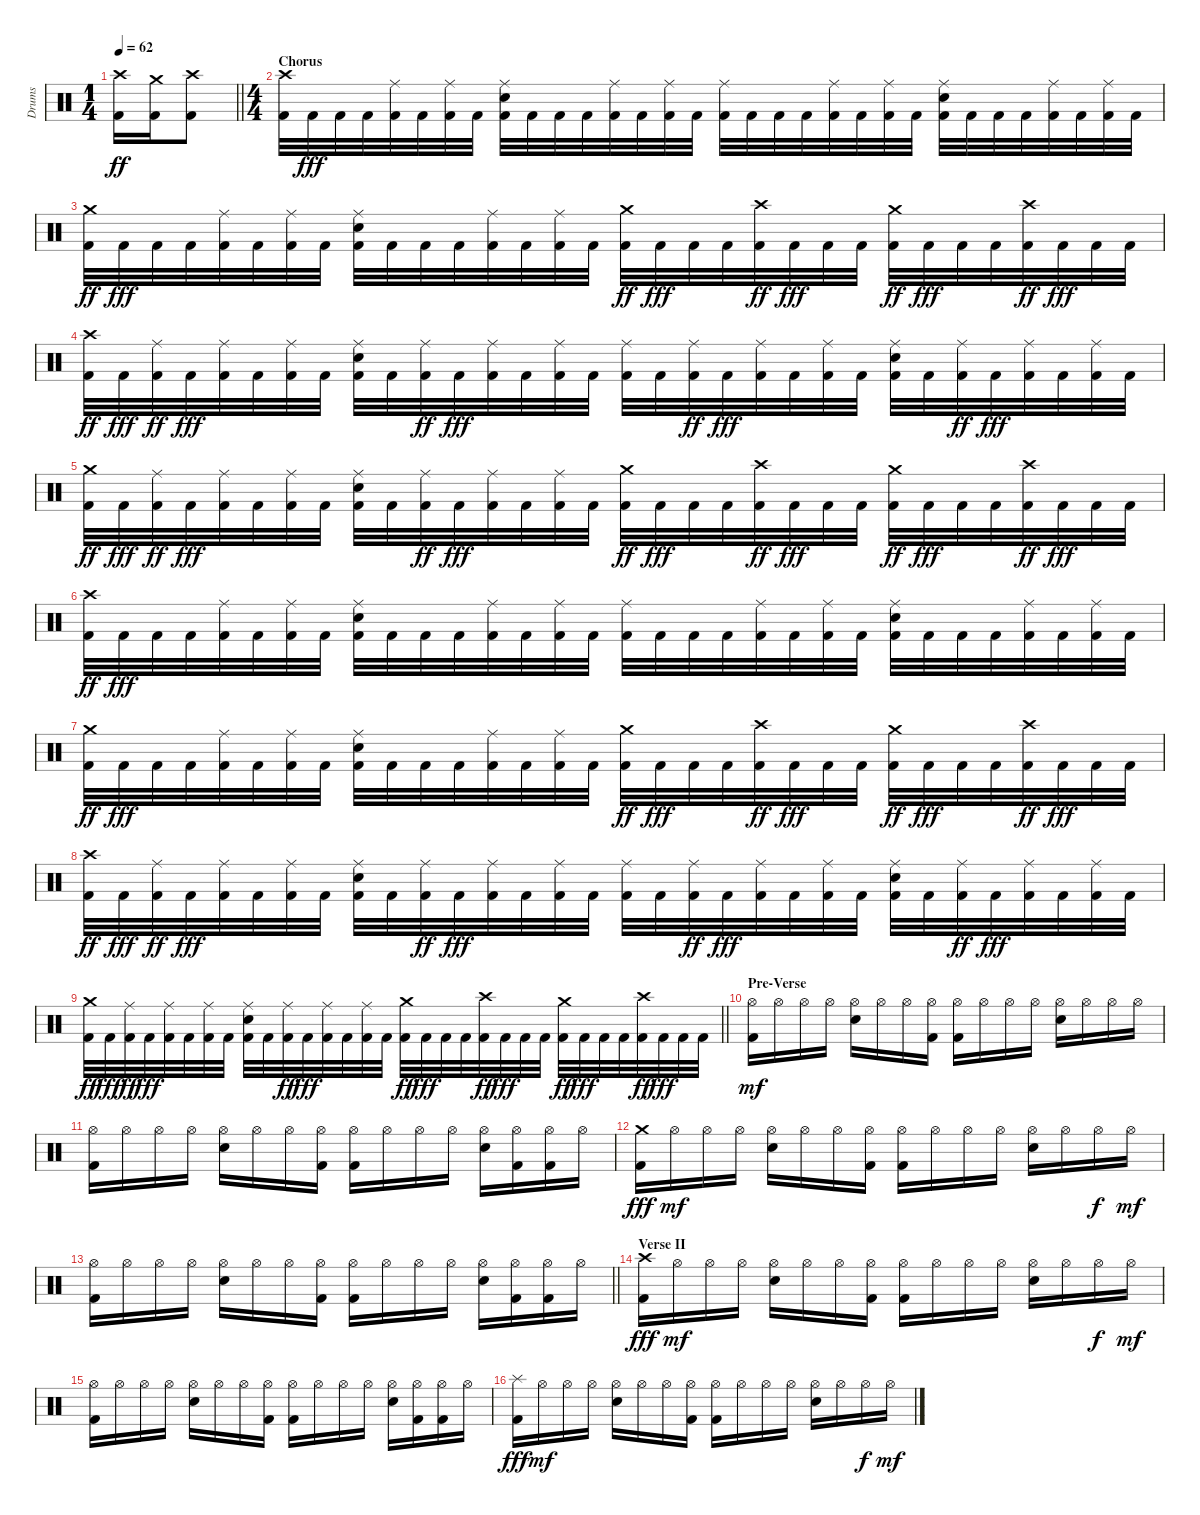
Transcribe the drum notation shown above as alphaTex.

\track ("Drums" "Drums") {instrument percussion}
\staff {score}
\articulation defaults
\ts (1 4)
\tempo 62
\clef neutral
\barLineRight lightlight
\ks c
("Kick (hit) 2" "Crash high (hit)").16{dy ff} ("Kick (hit) 2" "Crash medium (hit)").16 ("Kick (hit) 2" "Crash high (hit)").8 |
\ts (4 4)
\section ("" "Chorus")
("Kick (hit) 2" "Crash high (hit)").32 "Kick (hit) 2".32{dy fff} "Kick (hit) 2".32 "Kick (hit) 2".32 ("Kick (hit) 2" "Ride (middle)").32 "Kick (hit) 2".32 ("Kick (hit) 2" "Ride (middle)").32 "Kick (hit) 2".32 ("Kick (hit) 2" "Electric Snare (hit)" "Ride (middle)").32 "Kick (hit) 2".32 "Kick (hit) 2".32 "Kick (hit) 2".32 ("Kick (hit) 2" "Ride (middle)").32 "Kick (hit) 2".32 ("Kick (hit) 2" "Ride (middle)").32 "Kick (hit) 2".32 ("Kick (hit) 2" "Ride (middle)").32 "Kick (hit) 2".32 "Kick (hit) 2".32 "Kick (hit) 2".32 ("Kick (hit) 2" "Ride (middle)").32 "Kick (hit) 2".32 ("Kick (hit) 2" "Ride (middle)").32 "Kick (hit) 2".32 ("Kick (hit) 2" "Electric Snare (hit)" "Ride (middle)").32 "Kick (hit) 2".32 "Kick (hit) 2".32 "Kick (hit) 2".32 ("Kick (hit) 2" "Ride (middle)").32 "Kick (hit) 2".32 ("Kick (hit) 2" "Ride (middle)").32 "Kick (hit) 2".32 |
("Kick (hit) 2" "Crash medium (hit)").32{dy ff} "Kick (hit) 2".32{dy fff} "Kick (hit) 2".32 "Kick (hit) 2".32 ("Kick (hit) 2" "Ride (middle)").32 "Kick (hit) 2".32 ("Kick (hit) 2" "Ride (middle)").32 "Kick (hit) 2".32 ("Kick (hit) 2" "Electric Snare (hit)" "Ride (middle)").32 "Kick (hit) 2".32 "Kick (hit) 2".32 "Kick (hit) 2".32 ("Kick (hit) 2" "Ride (middle)").32 "Kick (hit) 2".32 ("Kick (hit) 2" "Ride (middle)").32 "Kick (hit) 2".32 ("Kick (hit) 2" "Crash medium (hit)").32{dy ff} "Kick (hit) 2".32{dy fff} "Kick (hit) 2".32 "Kick (hit) 2".32 ("Kick (hit) 2" "Crash high (hit)").32{dy ff} "Kick (hit) 2".32{dy fff} "Kick (hit) 2".32 "Kick (hit) 2".32 ("Kick (hit) 2" "Crash medium (hit)").32{dy ff} "Kick (hit) 2".32{dy fff} "Kick (hit) 2".32 "Kick (hit) 2".32 ("Kick (hit) 2" "Crash high (hit)").32{dy ff} "Kick (hit) 2".32{dy fff} "Kick (hit) 2".32 "Kick (hit) 2".32 |
("Kick (hit) 2" "Crash high (hit)").32{dy ff} "Kick (hit) 2".32{dy fff} ("Kick (hit) 2" "Ride (middle)").32{dy ff} "Kick (hit) 2".32{dy fff} ("Kick (hit) 2" "Ride (middle)").32 "Kick (hit) 2".32 ("Kick (hit) 2" "Ride (middle)").32 "Kick (hit) 2".32 ("Kick (hit) 2" "Electric Snare (hit)" "Ride (middle)").32 "Kick (hit) 2".32 ("Kick (hit) 2" "Ride (middle)").32{dy ff} "Kick (hit) 2".32{dy fff} ("Kick (hit) 2" "Ride (middle)").32 "Kick (hit) 2".32 ("Kick (hit) 2" "Ride (middle)").32 "Kick (hit) 2".32 ("Kick (hit) 2" "Ride (middle)").32 "Kick (hit) 2".32 ("Kick (hit) 2" "Ride (middle)").32{dy ff} "Kick (hit) 2".32{dy fff} ("Kick (hit) 2" "Ride (middle)").32 "Kick (hit) 2".32 ("Kick (hit) 2" "Ride (middle)").32 "Kick (hit) 2".32 ("Kick (hit) 2" "Electric Snare (hit)" "Ride (middle)").32 "Kick (hit) 2".32 ("Kick (hit) 2" "Ride (middle)").32{dy ff} "Kick (hit) 2".32{dy fff} ("Kick (hit) 2" "Ride (middle)").32 "Kick (hit) 2".32 ("Kick (hit) 2" "Ride (middle)").32 "Kick (hit) 2".32 |
("Kick (hit) 2" "Crash medium (hit)").32{dy ff} "Kick (hit) 2".32{dy fff} ("Kick (hit) 2" "Ride (middle)").32{dy ff} "Kick (hit) 2".32{dy fff} ("Kick (hit) 2" "Ride (middle)").32 "Kick (hit) 2".32 ("Kick (hit) 2" "Ride (middle)").32 "Kick (hit) 2".32 ("Kick (hit) 2" "Electric Snare (hit)" "Ride (middle)").32 "Kick (hit) 2".32 ("Kick (hit) 2" "Ride (middle)").32{dy ff} "Kick (hit) 2".32{dy fff} ("Kick (hit) 2" "Ride (middle)").32 "Kick (hit) 2".32 ("Kick (hit) 2" "Ride (middle)").32 "Kick (hit) 2".32 ("Kick (hit) 2" "Crash medium (hit)").32{dy ff} "Kick (hit) 2".32{dy fff} "Kick (hit) 2".32 "Kick (hit) 2".32 ("Kick (hit) 2" "Crash high (hit)").32{dy ff} "Kick (hit) 2".32{dy fff} "Kick (hit) 2".32 "Kick (hit) 2".32 ("Kick (hit) 2" "Crash medium (hit)").32{dy ff} "Kick (hit) 2".32{dy fff} "Kick (hit) 2".32 "Kick (hit) 2".32 ("Kick (hit) 2" "Crash high (hit)").32{dy ff} "Kick (hit) 2".32{dy fff} "Kick (hit) 2".32 "Kick (hit) 2".32 |
("Kick (hit) 2" "Crash high (hit)").32{dy ff} "Kick (hit) 2".32{dy fff} "Kick (hit) 2".32 "Kick (hit) 2".32 ("Kick (hit) 2" "Ride (middle)").32 "Kick (hit) 2".32 ("Kick (hit) 2" "Ride (middle)").32 "Kick (hit) 2".32 ("Kick (hit) 2" "Electric Snare (hit)" "Ride (middle)").32 "Kick (hit) 2".32 "Kick (hit) 2".32 "Kick (hit) 2".32 ("Kick (hit) 2" "Ride (middle)").32 "Kick (hit) 2".32 ("Kick (hit) 2" "Ride (middle)").32 "Kick (hit) 2".32 ("Kick (hit) 2" "Ride (middle)").32 "Kick (hit) 2".32 "Kick (hit) 2".32 "Kick (hit) 2".32 ("Kick (hit) 2" "Ride (middle)").32 "Kick (hit) 2".32 ("Kick (hit) 2" "Ride (middle)").32 "Kick (hit) 2".32 ("Kick (hit) 2" "Electric Snare (hit)" "Ride (middle)").32 "Kick (hit) 2".32 "Kick (hit) 2".32 "Kick (hit) 2".32 ("Kick (hit) 2" "Ride (middle)").32 "Kick (hit) 2".32 ("Kick (hit) 2" "Ride (middle)").32 "Kick (hit) 2".32 |
("Kick (hit) 2" "Crash medium (hit)").32{dy ff} "Kick (hit) 2".32{dy fff} "Kick (hit) 2".32 "Kick (hit) 2".32 ("Kick (hit) 2" "Ride (middle)").32 "Kick (hit) 2".32 ("Kick (hit) 2" "Ride (middle)").32 "Kick (hit) 2".32 ("Kick (hit) 2" "Electric Snare (hit)" "Ride (middle)").32 "Kick (hit) 2".32 "Kick (hit) 2".32 "Kick (hit) 2".32 ("Kick (hit) 2" "Ride (middle)").32 "Kick (hit) 2".32 ("Kick (hit) 2" "Ride (middle)").32 "Kick (hit) 2".32 ("Kick (hit) 2" "Crash medium (hit)").32{dy ff} "Kick (hit) 2".32{dy fff} "Kick (hit) 2".32 "Kick (hit) 2".32 ("Kick (hit) 2" "Crash high (hit)").32{dy ff} "Kick (hit) 2".32{dy fff} "Kick (hit) 2".32 "Kick (hit) 2".32 ("Kick (hit) 2" "Crash medium (hit)").32{dy ff} "Kick (hit) 2".32{dy fff} "Kick (hit) 2".32 "Kick (hit) 2".32 ("Kick (hit) 2" "Crash high (hit)").32{dy ff} "Kick (hit) 2".32{dy fff} "Kick (hit) 2".32 "Kick (hit) 2".32 |
("Kick (hit) 2" "Crash high (hit)").32{dy ff} "Kick (hit) 2".32{dy fff} ("Kick (hit) 2" "Ride (middle)").32{dy ff} "Kick (hit) 2".32{dy fff} ("Kick (hit) 2" "Ride (middle)").32 "Kick (hit) 2".32 ("Kick (hit) 2" "Ride (middle)").32 "Kick (hit) 2".32 ("Kick (hit) 2" "Electric Snare (hit)" "Ride (middle)").32 "Kick (hit) 2".32 ("Kick (hit) 2" "Ride (middle)").32{dy ff} "Kick (hit) 2".32{dy fff} ("Kick (hit) 2" "Ride (middle)").32 "Kick (hit) 2".32 ("Kick (hit) 2" "Ride (middle)").32 "Kick (hit) 2".32 ("Kick (hit) 2" "Ride (middle)").32 "Kick (hit) 2".32 ("Kick (hit) 2" "Ride (middle)").32{dy ff} "Kick (hit) 2".32{dy fff} ("Kick (hit) 2" "Ride (middle)").32 "Kick (hit) 2".32 ("Kick (hit) 2" "Ride (middle)").32 "Kick (hit) 2".32 ("Kick (hit) 2" "Electric Snare (hit)" "Ride (middle)").32 "Kick (hit) 2".32 ("Kick (hit) 2" "Ride (middle)").32{dy ff} "Kick (hit) 2".32{dy fff} ("Kick (hit) 2" "Ride (middle)").32 "Kick (hit) 2".32 ("Kick (hit) 2" "Ride (middle)").32 "Kick (hit) 2".32 |
\barLineRight lightlight
("Kick (hit) 2" "Crash medium (hit)").32{dy ff} "Kick (hit) 2".32{dy fff} ("Kick (hit) 2" "Ride (middle)").32{dy ff} "Kick (hit) 2".32{dy fff} ("Kick (hit) 2" "Ride (middle)").32 "Kick (hit) 2".32 ("Kick (hit) 2" "Ride (middle)").32 "Kick (hit) 2".32 ("Kick (hit) 2" "Electric Snare (hit)" "Ride (middle)").32 "Kick (hit) 2".32 ("Kick (hit) 2" "Ride (middle)").32{dy ff} "Kick (hit) 2".32{dy fff} ("Kick (hit) 2" "Ride (middle)").32 "Kick (hit) 2".32 ("Kick (hit) 2" "Ride (middle)").32 "Kick (hit) 2".32 ("Kick (hit) 2" "Crash medium (hit)").32{dy ff} "Kick (hit) 2".32{dy fff} "Kick (hit) 2".32 "Kick (hit) 2".32 ("Kick (hit) 2" "Crash high (hit)").32{dy ff} "Kick (hit) 2".32{dy fff} "Kick (hit) 2".32 "Kick (hit) 2".32 ("Kick (hit) 2" "Crash medium (hit)").32{dy ff} "Kick (hit) 2".32{dy fff} "Kick (hit) 2".32 "Kick (hit) 2".32 ("Kick (hit) 2" "Crash high (hit)").32{dy ff} "Kick (hit) 2".32{dy fff} "Kick (hit) 2".32 "Kick (hit) 2".32 |
\section ("" "Pre-Verse")
("Kick (hit) 2" "Hi-Hat (open)").16{dy mf} "Hi-Hat (open)".16 "Hi-Hat (open)".16 "Hi-Hat (open)".16 ("Electric Snare (hit)" "Hi-Hat (open)").16 "Hi-Hat (open)".16 "Hi-Hat (open)".16 ("Kick (hit) 2" "Hi-Hat (open)").16 ("Kick (hit) 2" "Hi-Hat (open)").16 "Hi-Hat (open)".16 "Hi-Hat (open)".16 "Hi-Hat (open)".16 ("Electric Snare (hit)" "Hi-Hat (open)").16 "Hi-Hat (open)".16 "Hi-Hat (open)".16 "Hi-Hat (open)".16 |
("Kick (hit) 2" "Hi-Hat (open)").16 "Hi-Hat (open)".16 "Hi-Hat (open)".16 "Hi-Hat (open)".16 ("Electric Snare (hit)" "Hi-Hat (open)").16 "Hi-Hat (open)".16 "Hi-Hat (open)".16 ("Kick (hit) 2" "Hi-Hat (open)").16 ("Kick (hit) 2" "Hi-Hat (open)").16 "Hi-Hat (open)".16 "Hi-Hat (open)".16 "Hi-Hat (open)".16 ("Electric Snare (hit)" "Hi-Hat (open)").16 ("Kick (hit) 2" "Hi-Hat (open)").16 ("Kick (hit) 2" "Hi-Hat (open)").16 "Hi-Hat (open)".16 |
("Kick (hit) 2" "Crash medium (hit)").16{dy fff} "Hi-Hat (open)".16{dy mf} "Hi-Hat (open)".16 "Hi-Hat (open)".16 ("Electric Snare (hit)" "Hi-Hat (open)").16 "Hi-Hat (open)".16 "Hi-Hat (open)".16 ("Kick (hit) 2" "Hi-Hat (open)").16 ("Kick (hit) 2" "Hi-Hat (open)").16 "Hi-Hat (open)".16 "Hi-Hat (open)".16 "Hi-Hat (open)".16 ("Electric Snare (hit)" "Hi-Hat (open)").16 "Hi-Hat (open)".16 "Hi-Hat (open)".16{dy f} "Hi-Hat (open)".16{dy mf} |
\barLineRight lightlight
("Kick (hit) 2" "Hi-Hat (open)").16 "Hi-Hat (open)".16 "Hi-Hat (open)".16 "Hi-Hat (open)".16 ("Electric Snare (hit)" "Hi-Hat (open)").16 "Hi-Hat (open)".16 "Hi-Hat (open)".16 ("Kick (hit) 2" "Hi-Hat (open)").16 ("Kick (hit) 2" "Hi-Hat (open)").16 "Hi-Hat (open)".16 "Hi-Hat (open)".16 "Hi-Hat (open)".16 ("Electric Snare (hit)" "Hi-Hat (open)").16 ("Kick (hit) 2" "Hi-Hat (open)").16 ("Kick (hit) 2" "Hi-Hat (open)").16 "Hi-Hat (open)".16 |
\section ("" "Verse II")
("Kick (hit) 2" "Crash high (hit)").16{dy fff} "Hi-Hat (open)".16{dy mf} "Hi-Hat (open)".16 "Hi-Hat (open)".16 ("Electric Snare (hit)" "Hi-Hat (open)").16 "Hi-Hat (open)".16 "Hi-Hat (open)".16 ("Kick (hit) 2" "Hi-Hat (open)").16 ("Kick (hit) 2" "Hi-Hat (open)").16 "Hi-Hat (open)".16 "Hi-Hat (open)".16 "Hi-Hat (open)".16 ("Electric Snare (hit)" "Hi-Hat (open)").16 "Hi-Hat (open)".16 "Hi-Hat (open)".16{dy f} "Hi-Hat (open)".16{dy mf} |
("Kick (hit) 2" "Hi-Hat (open)").16 "Hi-Hat (open)".16 "Hi-Hat (open)".16 "Hi-Hat (open)".16 ("Electric Snare (hit)" "Hi-Hat (open)").16 "Hi-Hat (open)".16 "Hi-Hat (open)".16 ("Kick (hit) 2" "Hi-Hat (open)").16 ("Kick (hit) 2" "Hi-Hat (open)").16 "Hi-Hat (open)".16 "Hi-Hat (open)".16 "Hi-Hat (open)".16 ("Electric Snare (hit)" "Hi-Hat (open)").16 ("Kick (hit) 2" "Hi-Hat (open)").16 ("Kick (hit) 2" "Hi-Hat (open)").16 "Hi-Hat (open)".16 |
("Kick (hit) 2" "Splash (hit)").16{dy fff} "Hi-Hat (open)".16{dy mf} "Hi-Hat (open)".16 "Hi-Hat (open)".16 ("Electric Snare (hit)" "Hi-Hat (open)").16 "Hi-Hat (open)".16 "Hi-Hat (open)".16 ("Kick (hit) 2" "Hi-Hat (open)").16 ("Kick (hit) 2" "Hi-Hat (open)").16 "Hi-Hat (open)".16 "Hi-Hat (open)".16 "Hi-Hat (open)".16 ("Electric Snare (hit)" "Hi-Hat (open)").16 "Hi-Hat (open)".16 "Hi-Hat (open)".16{dy f} "Hi-Hat (open)".16{dy mf}
